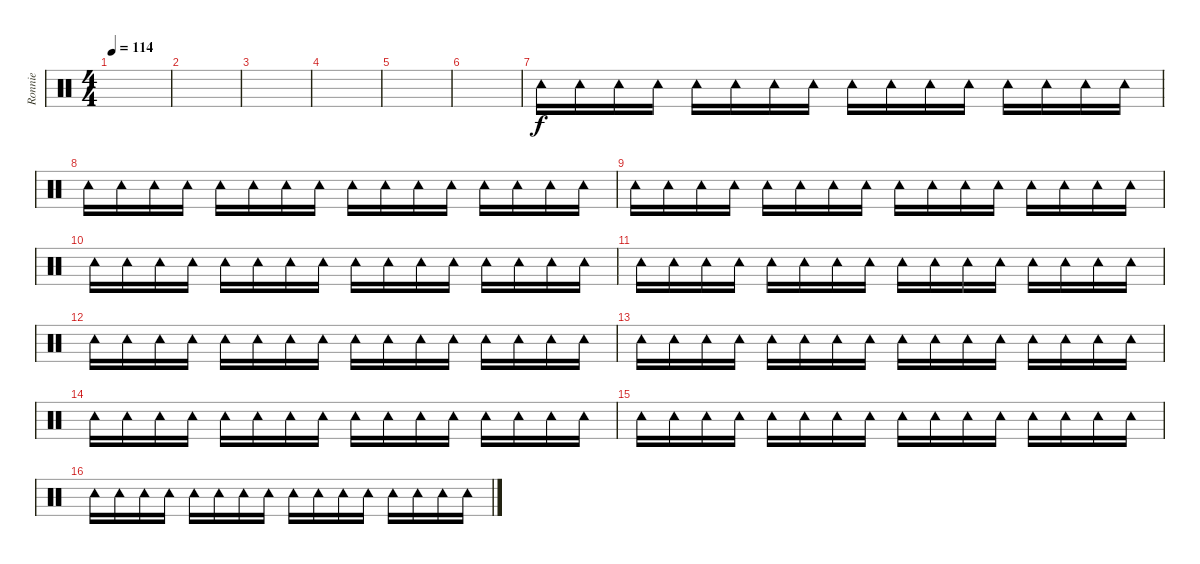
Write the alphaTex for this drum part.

\track ("Ronnie" "Ronnie") {instrument percussion}
\staff {score}
\articulation defaults
\ts (4 4)
\tempo 114
\clef neutral
\ks c
|
|
|
|
|
|
"Tambourine (hit)".16 "Tambourine (hit)".16 "Tambourine (hit)".16 "Tambourine (hit)".16 "Tambourine (hit)".16 "Tambourine (hit)".16 "Tambourine (hit)".16 "Tambourine (hit)".16 "Tambourine (hit)".16 "Tambourine (hit)".16 "Tambourine (hit)".16 "Tambourine (hit)".16 "Tambourine (hit)".16 "Tambourine (hit)".16 "Tambourine (hit)".16 "Tambourine (hit)".16 |
"Tambourine (hit)".16 "Tambourine (hit)".16 "Tambourine (hit)".16 "Tambourine (hit)".16 "Tambourine (hit)".16 "Tambourine (hit)".16 "Tambourine (hit)".16 "Tambourine (hit)".16 "Tambourine (hit)".16 "Tambourine (hit)".16 "Tambourine (hit)".16 "Tambourine (hit)".16 "Tambourine (hit)".16 "Tambourine (hit)".16 "Tambourine (hit)".16 "Tambourine (hit)".16 |
"Tambourine (hit)".16 "Tambourine (hit)".16 "Tambourine (hit)".16 "Tambourine (hit)".16 "Tambourine (hit)".16 "Tambourine (hit)".16 "Tambourine (hit)".16 "Tambourine (hit)".16 "Tambourine (hit)".16 "Tambourine (hit)".16 "Tambourine (hit)".16 "Tambourine (hit)".16 "Tambourine (hit)".16 "Tambourine (hit)".16 "Tambourine (hit)".16 "Tambourine (hit)".16 |
"Tambourine (hit)".16 "Tambourine (hit)".16 "Tambourine (hit)".16 "Tambourine (hit)".16 "Tambourine (hit)".16 "Tambourine (hit)".16 "Tambourine (hit)".16 "Tambourine (hit)".16 "Tambourine (hit)".16 "Tambourine (hit)".16 "Tambourine (hit)".16 "Tambourine (hit)".16 "Tambourine (hit)".16 "Tambourine (hit)".16 "Tambourine (hit)".16 "Tambourine (hit)".16 |
"Tambourine (hit)".16 "Tambourine (hit)".16 "Tambourine (hit)".16 "Tambourine (hit)".16 "Tambourine (hit)".16 "Tambourine (hit)".16 "Tambourine (hit)".16 "Tambourine (hit)".16 "Tambourine (hit)".16 "Tambourine (hit)".16 "Tambourine (hit)".16 "Tambourine (hit)".16 "Tambourine (hit)".16 "Tambourine (hit)".16 "Tambourine (hit)".16 "Tambourine (hit)".16 |
"Tambourine (hit)".16 "Tambourine (hit)".16 "Tambourine (hit)".16 "Tambourine (hit)".16 "Tambourine (hit)".16 "Tambourine (hit)".16 "Tambourine (hit)".16 "Tambourine (hit)".16 "Tambourine (hit)".16 "Tambourine (hit)".16 "Tambourine (hit)".16 "Tambourine (hit)".16 "Tambourine (hit)".16 "Tambourine (hit)".16 "Tambourine (hit)".16 "Tambourine (hit)".16 |
"Tambourine (hit)".16 "Tambourine (hit)".16 "Tambourine (hit)".16 "Tambourine (hit)".16 "Tambourine (hit)".16 "Tambourine (hit)".16 "Tambourine (hit)".16 "Tambourine (hit)".16 "Tambourine (hit)".16 "Tambourine (hit)".16 "Tambourine (hit)".16 "Tambourine (hit)".16 "Tambourine (hit)".16 "Tambourine (hit)".16 "Tambourine (hit)".16 "Tambourine (hit)".16 |
"Tambourine (hit)".16 "Tambourine (hit)".16 "Tambourine (hit)".16 "Tambourine (hit)".16 "Tambourine (hit)".16 "Tambourine (hit)".16 "Tambourine (hit)".16 "Tambourine (hit)".16 "Tambourine (hit)".16 "Tambourine (hit)".16 "Tambourine (hit)".16 "Tambourine (hit)".16 "Tambourine (hit)".16 "Tambourine (hit)".16 "Tambourine (hit)".16 "Tambourine (hit)".16 |
"Tambourine (hit)".16 "Tambourine (hit)".16 "Tambourine (hit)".16 "Tambourine (hit)".16 "Tambourine (hit)".16 "Tambourine (hit)".16 "Tambourine (hit)".16 "Tambourine (hit)".16 "Tambourine (hit)".16 "Tambourine (hit)".16 "Tambourine (hit)".16 "Tambourine (hit)".16 "Tambourine (hit)".16 "Tambourine (hit)".16 "Tambourine (hit)".16 "Tambourine (hit)".16 |
"Tambourine (hit)".16 "Tambourine (hit)".16 "Tambourine (hit)".16 "Tambourine (hit)".16 "Tambourine (hit)".16 "Tambourine (hit)".16 "Tambourine (hit)".16 "Tambourine (hit)".16 "Tambourine (hit)".16 "Tambourine (hit)".16 "Tambourine (hit)".16 "Tambourine (hit)".16 "Tambourine (hit)".16 "Tambourine (hit)".16 "Tambourine (hit)".16 "Tambourine (hit)".16
